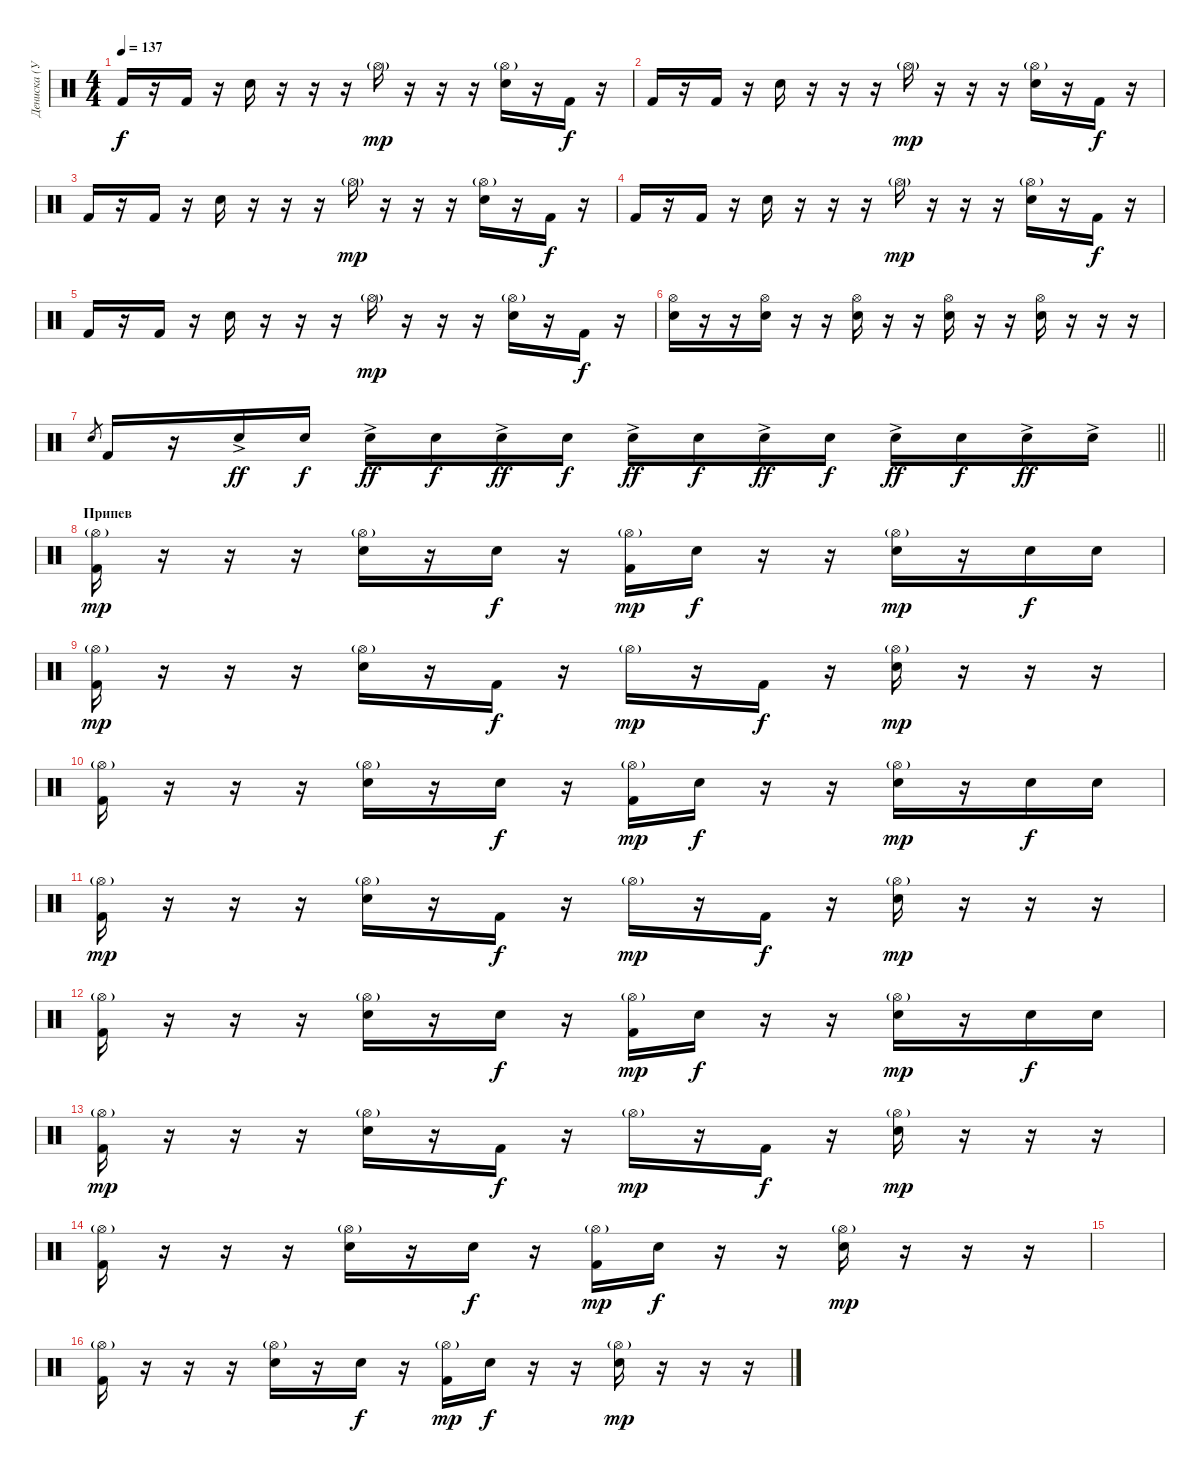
\track ("Дениска (Ударник)" "Дениска (У") {instrument percussion}
\staff
\articulation defaults
\ts (4 4)
\tempo 137
\clef neutral
\ks c "Kick (hit) 2".16{dy f}
r.16 "Kick (hit) 2".16 r.16 "Snare (hit) 2".16 r.16 r.16 r.16 "Hi-Hat (open)"{g}.16{dy mp} r.16 r.16 r.16 ("Snare (hit) 2" "Hi-Hat (open)"{g}).16 r.16 "Kick (hit) 2".16{dy f} r.16 |
"Kick (hit) 2".16 r.16 "Kick (hit) 2".16 r.16 "Snare (hit) 2".16 r.16 r.16 r.16 "Hi-Hat (open)"{g}.16{dy mp} r.16 r.16 r.16 ("Snare (hit) 2" "Hi-Hat (open)"{g}).16 r.16 "Kick (hit) 2".16{dy f} r.16 |
"Kick (hit) 2".16 r.16 "Kick (hit) 2".16 r.16 "Snare (hit) 2".16 r.16 r.16 r.16 "Hi-Hat (open)"{g}.16{dy mp} r.16 r.16 r.16 ("Snare (hit) 2" "Hi-Hat (open)"{g}).16 r.16 "Kick (hit) 2".16{dy f} r.16 |
"Kick (hit) 2".16 r.16 "Kick (hit) 2".16 r.16 "Snare (hit) 2".16 r.16 r.16 r.16 "Hi-Hat (open)"{g}.16{dy mp} r.16 r.16 r.16 ("Snare (hit) 2" "Hi-Hat (open)"{g}).16 r.16 "Kick (hit) 2".16{dy f} r.16 |
"Kick (hit) 2".16 r.16 "Kick (hit) 2".16 r.16 "Snare (hit) 2".16 r.16 r.16 r.16 "Hi-Hat (open)"{g}.16{dy mp} r.16 r.16 r.16 ("Snare (hit) 2" "Hi-Hat (open)"{g}).16 r.16 "Kick (hit) 2".16{dy f} r.16 |
("Snare (hit) 2" "Hi-Hat (open)").16 r.16 r.16 ("Snare (hit) 2" "Hi-Hat (open)").16 r.16 r.16 ("Snare (hit) 2" "Hi-Hat (open)").16 r.16 r.16 ("Snare (hit) 2" "Hi-Hat (open)").16 r.16 r.16 ("Snare (hit) 2" "Hi-Hat (open)").16 r.16 r.16 r.16 |
\barLineRight lightlight "Snare (hit) 2".8{gr} "Kick (hit) 2".16
r.16 "Snare (hit) 2"{ac}.16{dy ff} "Snare (hit) 2".16{dy f} "Snare (hit) 2"{ac}.16{dy ff} "Snare (hit) 2".16{dy f} "Snare (hit) 2"{ac}.16{dy ff} "Snare (hit) 2".16{dy f} "Snare (hit) 2"{ac}.16{dy ff} "Snare (hit) 2".16{dy f} "Snare (hit) 2"{ac}.16{dy ff} "Snare (hit) 2".16{dy f} "Snare (hit) 2"{ac}.16{dy ff} "Snare (hit) 2".16{dy f} "Snare (hit) 2"{ac}.16{dy ff} "Snare (hit) 2"{ac}.16 |
\section ("" "Припев")
("Kick (hit) 2" "Hi-Hat (open)"{g}).16{dy mp} r.16 r.16 r.16 ("Snare (hit) 2" "Hi-Hat (open)"{g}).16 r.16 "Snare (hit) 2".16{dy f} r.16 ("Kick (hit) 2" "Hi-Hat (open)"{g}).16{dy mp} "Snare (hit) 2".16{dy f} r.16 r.16 ("Snare (hit) 2" "Hi-Hat (open)"{g}).16{dy mp} r.16 "Snare (hit) 2".16{dy f} "Snare (hit) 2".16 |
("Kick (hit) 2" "Hi-Hat (open)"{g}).16{dy mp} r.16 r.16 r.16 ("Snare (hit) 2" "Hi-Hat (open)"{g}).16 r.16 "Kick (hit) 2".16{dy f} r.16 "Hi-Hat (open)"{g}.16{dy mp} r.16 "Kick (hit) 2".16{dy f} r.16 ("Snare (hit) 2" "Hi-Hat (open)"{g}).16{dy mp} r.16 r.16 r.16 |
("Kick (hit) 2" "Hi-Hat (open)"{g}).16 r.16 r.16 r.16 ("Snare (hit) 2" "Hi-Hat (open)"{g}).16 r.16 "Snare (hit) 2".16{dy f} r.16 ("Kick (hit) 2" "Hi-Hat (open)"{g}).16{dy mp} "Snare (hit) 2".16{dy f} r.16 r.16 ("Snare (hit) 2" "Hi-Hat (open)"{g}).16{dy mp} r.16 "Snare (hit) 2".16{dy f} "Snare (hit) 2".16 |
("Kick (hit) 2" "Hi-Hat (open)"{g}).16{dy mp} r.16 r.16 r.16 ("Snare (hit) 2" "Hi-Hat (open)"{g}).16 r.16 "Kick (hit) 2".16{dy f} r.16 "Hi-Hat (open)"{g}.16{dy mp} r.16 "Kick (hit) 2".16{dy f} r.16 ("Snare (hit) 2" "Hi-Hat (open)"{g}).16{dy mp} r.16 r.16 r.16 |
("Kick (hit) 2" "Hi-Hat (open)"{g}).16 r.16 r.16 r.16 ("Snare (hit) 2" "Hi-Hat (open)"{g}).16 r.16 "Snare (hit) 2".16{dy f} r.16 ("Kick (hit) 2" "Hi-Hat (open)"{g}).16{dy mp} "Snare (hit) 2".16{dy f} r.16 r.16 ("Snare (hit) 2" "Hi-Hat (open)"{g}).16{dy mp} r.16 "Snare (hit) 2".16{dy f} "Snare (hit) 2".16 |
("Kick (hit) 2" "Hi-Hat (open)"{g}).16{dy mp} r.16 r.16 r.16 ("Snare (hit) 2" "Hi-Hat (open)"{g}).16 r.16 "Kick (hit) 2".16{dy f} r.16 "Hi-Hat (open)"{g}.16{dy mp} r.16 "Kick (hit) 2".16{dy f} r.16 ("Snare (hit) 2" "Hi-Hat (open)"{g}).16{dy mp} r.16 r.16 r.16 |
("Kick (hit) 2" "Hi-Hat (open)"{g}).16 r.16 r.16 r.16 ("Snare (hit) 2" "Hi-Hat (open)"{g}).16 r.16 "Snare (hit) 2".16{dy f} r.16 ("Kick (hit) 2" "Hi-Hat (open)"{g}).16{dy mp} "Snare (hit) 2".16{dy f} r.16 r.16 ("Snare (hit) 2" "Hi-Hat (open)"{g}).16{dy mp} r.16 r.16 r.16 |
|
("Kick (hit) 2" "Hi-Hat (open)"{g}).16 r.16 r.16 r.16 ("Snare (hit) 2" "Hi-Hat (open)"{g}).16 r.16 "Snare (hit) 2".16{dy f} r.16 ("Kick (hit) 2" "Hi-Hat (open)"{g}).16{dy mp} "Snare (hit) 2".16{dy f} r.16 r.16 ("Snare (hit) 2" "Hi-Hat (open)"{g}).16{dy mp} r.16 r.16 r.16
